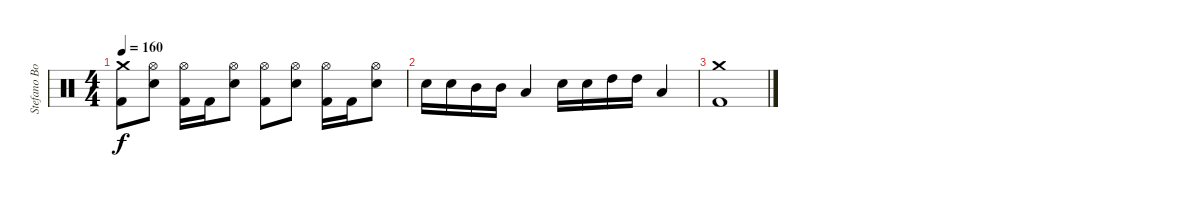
\track ("Stefano Bonini" "Stefano Bo") {instrument percussion}
\staff {score}
\articulation defaults
\ts (4 4)
\tempo 160
\clef neutral
\ks c
("Crash medium (hit)" "Kick (hit) 2").8{dy f} ("Hi-Hat (open)" "Snare (hit) 2").8 ("Hi-Hat (open)" "Kick (hit) 2").16 "Kick (hit) 2".16 ("Hi-Hat (open)" "Snare (hit) 2").8 ("Hi-Hat (open)" "Kick (hit) 2").8 ("Hi-Hat (open)" "Snare (hit) 2").8 ("Hi-Hat (open)" "Kick (hit) 2").16 "Kick (hit) 2".16 ("Hi-Hat (open)" "Snare (hit) 2").8 |
"Snare (hit) 2".16 "Snare (hit) 2".16 "Mid Tom (hit)".16 "Mid Tom (hit)".16 "Low Tom (hit)".4 "Snare (hit) 2".16 "Snare (hit) 2".16 "High Tom (hit)".16 "High Tom (hit)".16 "Low Tom (hit)".4 |
("Crash medium (hit)" "Kick (hit) 2").1
